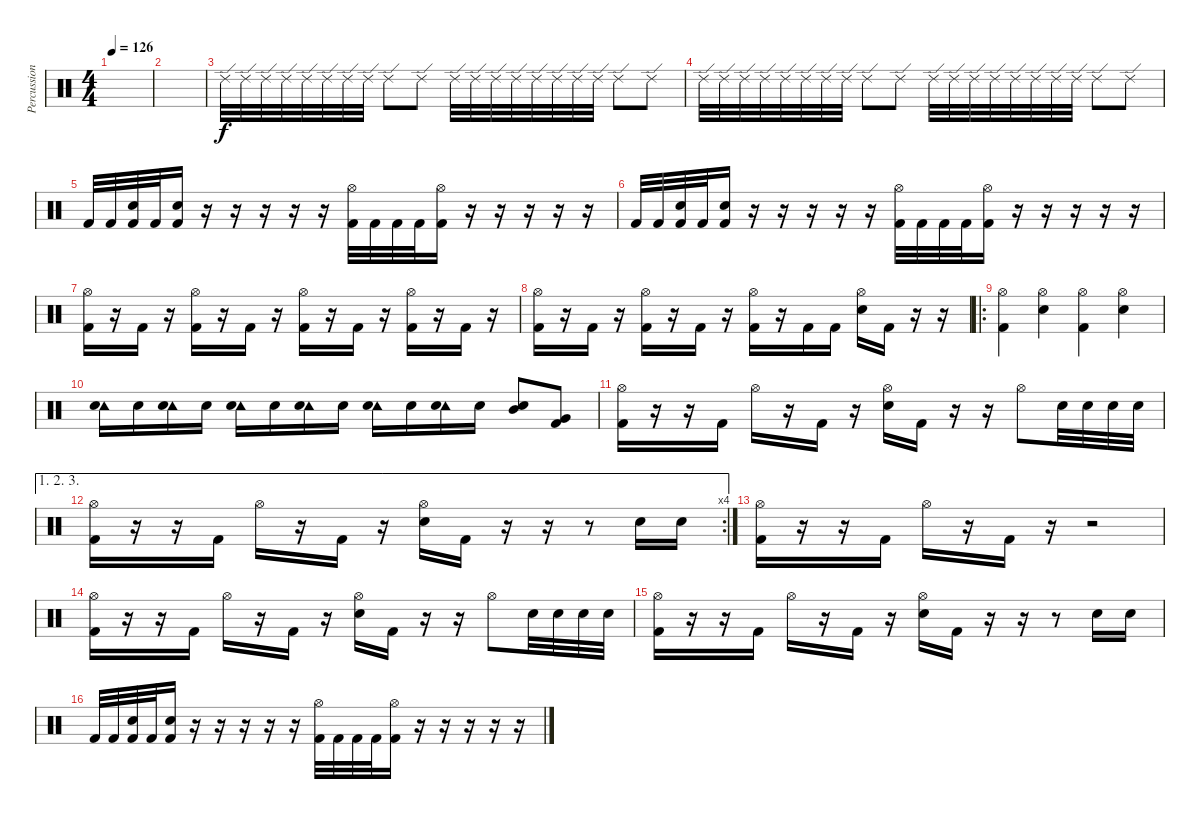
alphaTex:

\track ("Percussions" "Percussion") {instrument percussion}
\staff {score}
\articulation defaults
\ts (4 4)
\tempo 126
\clef neutral
\ks c
|
|
"Ride (edge) 2".32 "Ride (edge) 2".32 "Ride (edge) 2".32 "Ride (edge) 2".32 "Ride (edge) 2".32 "Ride (edge) 2".32 "Ride (edge) 2".32 "Ride (edge) 2".32 "Ride (edge) 2".8 "Ride (edge) 2".8 "Ride (edge) 2".32 "Ride (edge) 2".32 "Ride (edge) 2".32 "Ride (edge) 2".32 "Ride (edge) 2".32 "Ride (edge) 2".32 "Ride (edge) 2".32 "Ride (edge) 2".32 "Ride (edge) 2".8 "Ride (edge) 2".8 |
"Ride (edge) 2".32 "Ride (edge) 2".32 "Ride (edge) 2".32 "Ride (edge) 2".32 "Ride (edge) 2".32 "Ride (edge) 2".32 "Ride (edge) 2".32 "Ride (edge) 2".32 "Ride (edge) 2".8 "Ride (edge) 2".8 "Ride (edge) 2".32 "Ride (edge) 2".32 "Ride (edge) 2".32 "Ride (edge) 2".32 "Ride (edge) 2".32 "Ride (edge) 2".32 "Ride (edge) 2".32 "Ride (edge) 2".32 "Ride (edge) 2".8 "Ride (edge) 2".8 |
"Kick (hit) 2".32{dy f} "Kick (hit) 2".32 ("Electric Snare (hit)" "Kick (hit) 2").32 "Kick (hit) 2".32 ("Electric Snare (hit)" "Kick (hit) 2").16 r.16 r.16 r.16 r.16 r.16 ("Hi-Hat (open)" "Kick (hit) 2").32 "Kick (hit) 2".32 "Kick (hit) 2".32 "Kick (hit) 2".32 ("Hi-Hat (open)" "Kick (hit) 2").16 r.16 r.16 r.16 r.16 r.16 |
"Kick (hit) 2".32 "Kick (hit) 2".32 ("Electric Snare (hit)" "Kick (hit) 2").32 "Kick (hit) 2".32 ("Electric Snare (hit)" "Kick (hit) 2").16 r.16 r.16 r.16 r.16 r.16 ("Hi-Hat (open)" "Kick (hit) 2").32 "Kick (hit) 2".32 "Kick (hit) 2".32 "Kick (hit) 2".32 ("Hi-Hat (open)" "Kick (hit) 2").16 r.16 r.16 r.16 r.16 r.16 |
("Hi-Hat (open)" "Kick (hit) 2").16 r.16 "Kick (hit) 2".16 r.16 ("Hi-Hat (open)" "Kick (hit) 2").16 r.16 "Kick (hit) 2".16 r.16 ("Hi-Hat (open)" "Kick (hit) 2").16 r.16 "Kick (hit) 2".16 r.16 ("Hi-Hat (open)" "Kick (hit) 2").16 r.16 "Kick (hit) 2".16 r.16 |
("Hi-Hat (open)" "Kick (hit) 2").16 r.16 "Kick (hit) 2".16 r.16 ("Hi-Hat (open)" "Kick (hit) 2").16 r.16 "Kick (hit) 2".16 r.16 ("Hi-Hat (open)" "Kick (hit) 2").16 r.16 "Kick (hit) 2".16 "Kick (hit) 2".16 ("Hi-Hat (open)" "Electric Snare (hit)").16 "Kick (hit) 2".16 r.16 r.16 |
\ro
("Hi-Hat (open)" "Kick (hit) 2").4 ("Hi-Hat (open)" "Electric Snare (hit)").4 ("Hi-Hat (open)" "Kick (hit) 2").4 ("Hi-Hat (open)" "Electric Snare (hit)").4 |
("Tambourine (hit)" "Electric Snare (hit)").16 "Electric Snare (hit)".16 ("Tambourine (hit)" "Electric Snare (hit)").16 "Electric Snare (hit)".16 ("Tambourine (hit)" "Electric Snare (hit)").16 "Electric Snare (hit)".16 ("Tambourine (hit)" "Electric Snare (hit)").16 "Electric Snare (hit)".16 ("Tambourine (hit)" "Electric Snare (hit)").16 "Electric Snare (hit)".16 ("Tambourine (hit)" "Electric Snare (hit)").16 "Electric Snare (hit)".16 ("Mid Tom (hit)" "Electric Snare (hit)").8 ("Very Low Tom (hit)" "Kick (hit) 2").8 |
("Hi-Hat (open)" "Kick (hit) 2").16 r.16 r.16 "Kick (hit) 2".16 "Hi-Hat (open)".16 r.16 "Kick (hit) 2".16 r.16 ("Hi-Hat (open)" "Electric Snare (hit)").16 "Kick (hit) 2".16 r.16 r.16 "Hi-Hat (open)".8 "Electric Snare (hit)".32 "Electric Snare (hit)".32 "Electric Snare (hit)".32 "Electric Snare (hit)".32 |
\ae (1 2 3)
\rc 4
("Hi-Hat (open)" "Kick (hit) 2").16 r.16 r.16 "Kick (hit) 2".16 "Hi-Hat (open)".16 r.16 "Kick (hit) 2".16 r.16 ("Hi-Hat (open)" "Electric Snare (hit)").16 "Kick (hit) 2".16 r.16 r.16 r.8 "Electric Snare (hit)".16 "Electric Snare (hit)".16 |
("Hi-Hat (open)" "Kick (hit) 2").16 r.16 r.16 "Kick (hit) 2".16 "Hi-Hat (open)".16 r.16 "Kick (hit) 2".16 r.16 r.2 |
("Hi-Hat (open)" "Kick (hit) 2").16 r.16 r.16 "Kick (hit) 2".16 "Hi-Hat (open)".16 r.16 "Kick (hit) 2".16 r.16 ("Hi-Hat (open)" "Electric Snare (hit)").16 "Kick (hit) 2".16 r.16 r.16 "Hi-Hat (open)".8 "Electric Snare (hit)".32 "Electric Snare (hit)".32 "Electric Snare (hit)".32 "Electric Snare (hit)".32 |
("Hi-Hat (open)" "Kick (hit) 2").16 r.16 r.16 "Kick (hit) 2".16 "Hi-Hat (open)".16 r.16 "Kick (hit) 2".16 r.16 ("Hi-Hat (open)" "Electric Snare (hit)").16 "Kick (hit) 2".16 r.16 r.16 r.8 "Electric Snare (hit)".16 "Electric Snare (hit)".16 |
"Kick (hit) 2".32 "Kick (hit) 2".32 ("Electric Snare (hit)" "Kick (hit) 2").32 "Kick (hit) 2".32 ("Electric Snare (hit)" "Kick (hit) 2").16 r.16 r.16 r.16 r.16 r.16 ("Hi-Hat (open)" "Kick (hit) 2").32 "Kick (hit) 2".32 "Kick (hit) 2".32 "Kick (hit) 2".32 ("Hi-Hat (open)" "Kick (hit) 2").16 r.16 r.16 r.16 r.16 r.16
